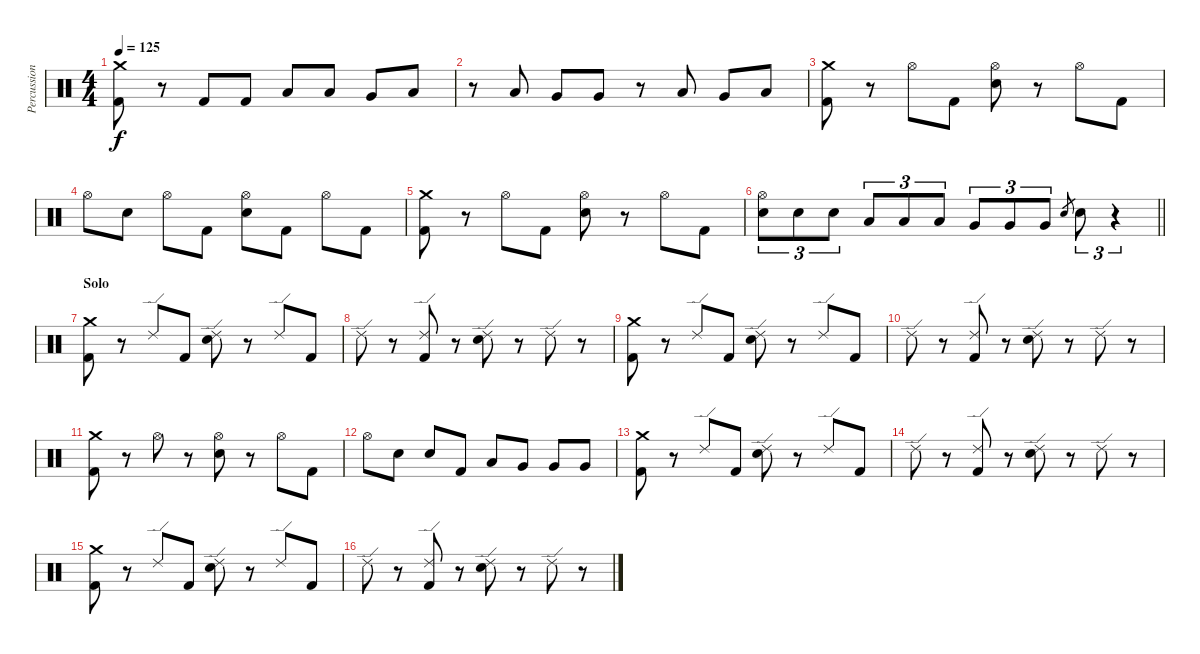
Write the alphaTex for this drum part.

\track ("Percussion" "Percussion") {instrument percussion}
\staff {score}
\articulation defaults
\ts (4 4)
\tempo 125
\clef neutral
\ks c
("Crash medium (hit)" "Kick (hit) 2").8{dy f} r.8 "Kick (hit) 2".8 "Kick (hit) 2".8 "Low Tom (hit)".8 "Low Tom (hit)".8 "Very Low Tom (hit)".8 "Low Tom (hit)".8 |
r.8 "Low Tom (hit)".8 "Very Low Tom (hit)".8 "Very Low Tom (hit)".8 r.8 "Low Tom (hit)".8 "Very Low Tom (hit)".8 "Low Tom (hit)".8 |
("Crash medium (hit)" "Kick (hit) 2").8 r.8 "Hi-Hat (open)".8 "Kick (hit) 2".8 ("Hi-Hat (open)" "Electric Snare (hit)").8 r.8 "Hi-Hat (open)".8 "Kick (hit) 2".8 |
"Hi-Hat (open)".8 "Electric Snare (hit)".8 "Hi-Hat (open)".8 "Kick (hit) 2".8 ("Hi-Hat (open)" "Electric Snare (hit)").8 "Kick (hit) 2".8 "Hi-Hat (open)".8 "Kick (hit) 2".8 |
("Crash medium (hit)" "Kick (hit) 2").8 r.8 "Hi-Hat (open)".8 "Kick (hit) 2".8 ("Hi-Hat (open)" "Electric Snare (hit)").8 r.8 "Hi-Hat (open)".8 "Kick (hit) 2".8 |
\barLineRight lightlight
("Hi-Hat (open)" "Electric Snare (hit)").8{tu (3 2)} "Electric Snare (hit)".8{tu (3 2)} "Electric Snare (hit)".8{tu (3 2)} "Low Tom (hit)".8{tu (3 2)} "Low Tom (hit)".8{tu (3 2)} "Low Tom (hit)".8{tu (3 2)} "Very Low Tom (hit)".8{tu (3 2)} "Very Low Tom (hit)".8{tu (3 2)} "Very Low Tom (hit)".8{tu (3 2)} "Electric Snare (hit)".8{gr} "Electric Snare (hit)".8{tu (3 2)} r.4{tu (3 2)} |
\section ("" "Solo")
("Crash medium (hit)" "Kick (hit) 2").8 r.8 "Ride (edge) 2".8 "Kick (hit) 2".8 ("Ride (edge) 2" "Electric Snare (hit)").8 r.8 "Ride (edge) 2".8 "Kick (hit) 2".8 |
"Ride (edge) 2".8 r.8 ("Ride (edge) 2" "Kick (hit) 2").8 r.8 ("Ride (edge) 2" "Electric Snare (hit)").8 r.8 "Ride (edge) 2".8 r.8 |
("Crash medium (hit)" "Kick (hit) 2").8 r.8 "Ride (edge) 2".8 "Kick (hit) 2".8 ("Ride (edge) 2" "Electric Snare (hit)").8 r.8 "Ride (edge) 2".8 "Kick (hit) 2".8 |
"Ride (edge) 2".8 r.8 ("Ride (edge) 2" "Kick (hit) 2").8 r.8 ("Ride (edge) 2" "Electric Snare (hit)").8 r.8 "Ride (edge) 2".8 r.8 |
("Crash medium (hit)" "Kick (hit) 2").8 r.8 "Hi-Hat (open)".8 r.8 ("Hi-Hat (open)" "Electric Snare (hit)").8 r.8 "Hi-Hat (open)".8 "Kick (hit) 2".8 |
"Hi-Hat (open)".8 "Electric Snare (hit)".8 "Electric Snare (hit)".8 "Kick (hit) 2".8 "Low Tom (hit)".8 "Very Low Tom (hit)".8 "Very Low Tom (hit)".8 "Very Low Tom (hit)".8 |
("Crash medium (hit)" "Kick (hit) 2").8 r.8 "Ride (edge) 2".8 "Kick (hit) 2".8 ("Ride (edge) 2" "Electric Snare (hit)").8 r.8 "Ride (edge) 2".8 "Kick (hit) 2".8 |
"Ride (edge) 2".8 r.8 ("Ride (edge) 2" "Kick (hit) 2").8 r.8 ("Ride (edge) 2" "Electric Snare (hit)").8 r.8 "Ride (edge) 2".8 r.8 |
("Crash medium (hit)" "Kick (hit) 2").8 r.8 "Ride (edge) 2".8 "Kick (hit) 2".8 ("Ride (edge) 2" "Electric Snare (hit)").8 r.8 "Ride (edge) 2".8 "Kick (hit) 2".8 |
"Ride (edge) 2".8 r.8 ("Ride (edge) 2" "Kick (hit) 2").8 r.8 ("Ride (edge) 2" "Electric Snare (hit)").8 r.8 "Ride (edge) 2".8 r.8
